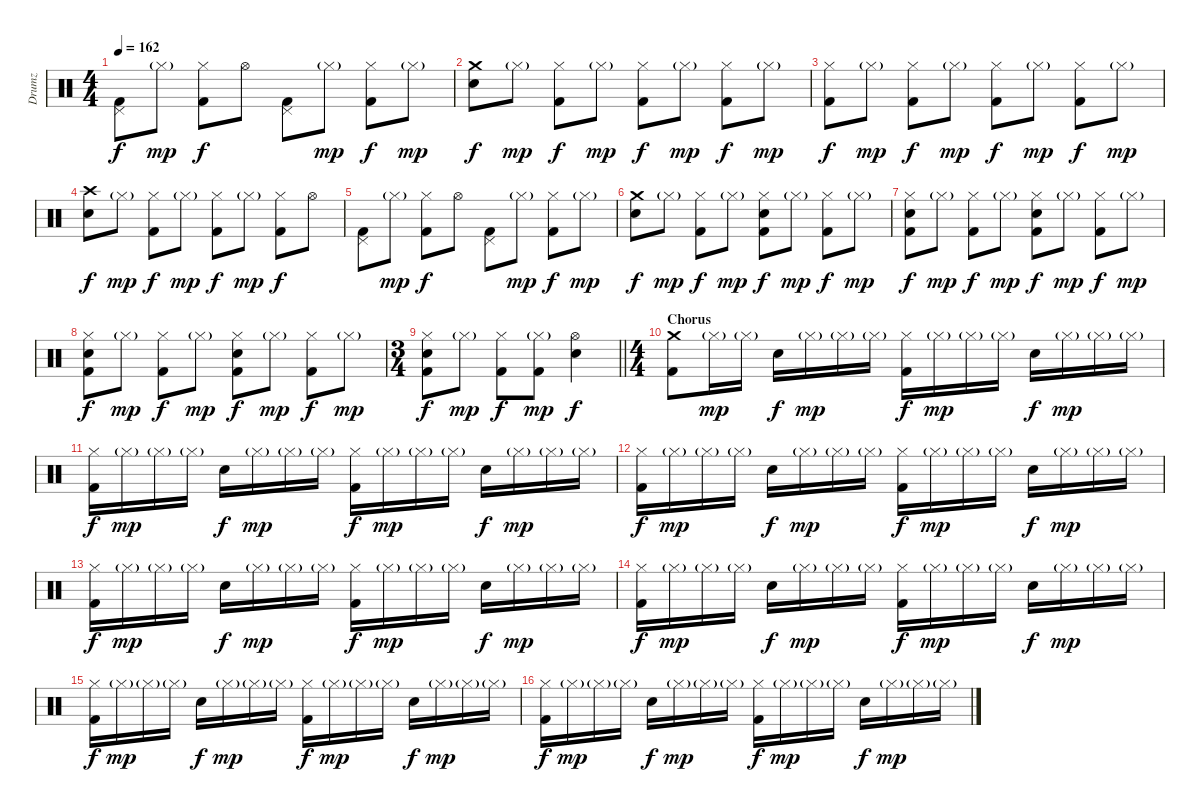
\track ("Drumz" "Drumz") {instrument percussion}
\staff {score}
\articulation defaults
\ts (4 4)
\tempo 162
\clef neutral
\ks c
("Pedal Hi-Hat (hit)" "Kick (hit) 2").8{dy f} "Hi-Hat (closed)"{g}.8{dy mp} ("Hi-Hat (closed)" "Kick (hit) 2").8{dy f} "Hi-Hat (open)".8 ("Pedal Hi-Hat (hit)" "Kick (hit) 2").8 "Hi-Hat (closed)"{g}.8{dy mp} ("Hi-Hat (closed)" "Kick (hit) 2").8{dy f} "Hi-Hat (closed)"{g}.8{dy mp} |
("Crash medium (hit)" "Electric Snare (hit)").8{dy f} "Hi-Hat (closed)"{g}.8{dy mp} ("Hi-Hat (closed)" "Kick (hit) 2").8{dy f} "Hi-Hat (closed)"{g}.8{dy mp} ("Hi-Hat (closed)" "Kick (hit) 2").8{dy f} "Hi-Hat (closed)"{g}.8{dy mp} ("Hi-Hat (closed)" "Kick (hit) 2").8{dy f} "Hi-Hat (closed)"{g}.8{dy mp} |
("Hi-Hat (closed)" "Kick (hit) 2").8{dy f} "Hi-Hat (closed)"{g}.8{dy mp} ("Hi-Hat (closed)" "Kick (hit) 2").8{dy f} "Hi-Hat (closed)"{g}.8{dy mp} ("Hi-Hat (closed)" "Kick (hit) 2").8{dy f} "Hi-Hat (closed)"{g}.8{dy mp} ("Hi-Hat (closed)" "Kick (hit) 2").8{dy f} "Hi-Hat (closed)"{g}.8{dy mp} |
("Crash high (hit)" "Electric Snare (hit)").8{dy f} "Hi-Hat (closed)"{g}.8{dy mp} ("Hi-Hat (closed)" "Kick (hit) 2").8{dy f} "Hi-Hat (closed)"{g}.8{dy mp} ("Hi-Hat (closed)" "Kick (hit) 2").8{dy f} "Hi-Hat (closed)"{g}.8{dy mp} ("Hi-Hat (closed)" "Kick (hit) 2").8{dy f} "Hi-Hat (open)".8 |
("Pedal Hi-Hat (hit)" "Kick (hit) 2").8 "Hi-Hat (closed)"{g}.8{dy mp} ("Hi-Hat (closed)" "Kick (hit) 2").8{dy f} "Hi-Hat (open)".8 ("Pedal Hi-Hat (hit)" "Kick (hit) 2").8 "Hi-Hat (closed)"{g}.8{dy mp} ("Hi-Hat (closed)" "Kick (hit) 2").8{dy f} "Hi-Hat (closed)"{g}.8{dy mp} |
("Crash medium (hit)" "Electric Snare (hit)").8{dy f} "Hi-Hat (closed)"{g}.8{dy mp} ("Hi-Hat (closed)" "Kick (hit) 2").8{dy f} "Hi-Hat (closed)"{g}.8{dy mp} ("Hi-Hat (closed)" "Electric Snare (hit)" "Kick (hit) 2").8{dy f} "Hi-Hat (closed)"{g}.8{dy mp} ("Hi-Hat (closed)" "Kick (hit) 2").8{dy f} "Hi-Hat (closed)"{g}.8{dy mp} |
("Hi-Hat (closed)" "Electric Snare (hit)" "Kick (hit) 2").8{dy f} "Hi-Hat (closed)"{g}.8{dy mp} ("Hi-Hat (closed)" "Kick (hit) 2").8{dy f} "Hi-Hat (closed)"{g}.8{dy mp} ("Hi-Hat (closed)" "Electric Snare (hit)" "Kick (hit) 2").8{dy f} "Hi-Hat (closed)"{g}.8{dy mp} ("Hi-Hat (closed)" "Kick (hit) 2").8{dy f} "Hi-Hat (closed)"{g}.8{dy mp} |
("Hi-Hat (closed)" "Electric Snare (hit)" "Kick (hit) 2").8{dy f} "Hi-Hat (closed)"{g}.8{dy mp} ("Hi-Hat (closed)" "Kick (hit) 2").8{dy f} "Hi-Hat (closed)"{g}.8{dy mp} ("Hi-Hat (closed)" "Electric Snare (hit)" "Kick (hit) 2").8{dy f} "Hi-Hat (closed)"{g}.8{dy mp} ("Hi-Hat (closed)" "Kick (hit) 2").8{dy f} "Hi-Hat (closed)"{g}.8{dy mp} |
\ts (3 4)
\barLineRight lightlight
("Hi-Hat (closed)" "Electric Snare (hit)" "Kick (hit) 2").8{dy f} "Hi-Hat (closed)"{g}.8{dy mp} ("Hi-Hat (closed)" "Kick (hit) 2").8{dy f} ("Hi-Hat (closed)"{g} "Kick (hit) 2").8{dy mp} ("Hi-Hat (open)" "Electric Snare (hit)").4{dy f} |
\ts (4 4)
\section ("" "Chorus")
("Crash medium (hit)" "Kick (hit) 2").8 "Hi-Hat (closed)"{g}.16{dy mp} "Hi-Hat (closed)"{g}.16 "Electric Snare (hit)".16{dy f} "Hi-Hat (closed)"{g}.16{dy mp} "Hi-Hat (closed)"{g}.16 "Hi-Hat (closed)"{g}.16 ("Hi-Hat (closed)" "Kick (hit) 2").16{dy f} "Hi-Hat (closed)"{g}.16{dy mp} "Hi-Hat (closed)"{g}.16 "Hi-Hat (closed)"{g}.16 "Electric Snare (hit)".16{dy f} "Hi-Hat (closed)"{g}.16{dy mp} "Hi-Hat (closed)"{g}.16 "Hi-Hat (closed)"{g}.16 |
("Hi-Hat (closed)" "Kick (hit) 2").16{dy f} "Hi-Hat (closed)"{g}.16{dy mp} "Hi-Hat (closed)"{g}.16 "Hi-Hat (closed)"{g}.16 "Electric Snare (hit)".16{dy f} "Hi-Hat (closed)"{g}.16{dy mp} "Hi-Hat (closed)"{g}.16 "Hi-Hat (closed)"{g}.16 ("Hi-Hat (closed)" "Kick (hit) 2").16{dy f} "Hi-Hat (closed)"{g}.16{dy mp} "Hi-Hat (closed)"{g}.16 "Hi-Hat (closed)"{g}.16 "Electric Snare (hit)".16{dy f} "Hi-Hat (closed)"{g}.16{dy mp} "Hi-Hat (closed)"{g}.16 "Hi-Hat (closed)"{g}.16 |
("Hi-Hat (closed)" "Kick (hit) 2").16{dy f} "Hi-Hat (closed)"{g}.16{dy mp} "Hi-Hat (closed)"{g}.16 "Hi-Hat (closed)"{g}.16 "Electric Snare (hit)".16{dy f} "Hi-Hat (closed)"{g}.16{dy mp} "Hi-Hat (closed)"{g}.16 "Hi-Hat (closed)"{g}.16 ("Hi-Hat (closed)" "Kick (hit) 2").16{dy f} "Hi-Hat (closed)"{g}.16{dy mp} "Hi-Hat (closed)"{g}.16 "Hi-Hat (closed)"{g}.16 "Electric Snare (hit)".16{dy f} "Hi-Hat (closed)"{g}.16{dy mp} "Hi-Hat (closed)"{g}.16 "Hi-Hat (closed)"{g}.16 |
("Hi-Hat (closed)" "Kick (hit) 2").16{dy f} "Hi-Hat (closed)"{g}.16{dy mp} "Hi-Hat (closed)"{g}.16 "Hi-Hat (closed)"{g}.16 "Electric Snare (hit)".16{dy f} "Hi-Hat (closed)"{g}.16{dy mp} "Hi-Hat (closed)"{g}.16 "Hi-Hat (closed)"{g}.16 ("Hi-Hat (closed)" "Kick (hit) 2").16{dy f} "Hi-Hat (closed)"{g}.16{dy mp} "Hi-Hat (closed)"{g}.16 "Hi-Hat (closed)"{g}.16 "Electric Snare (hit)".16{dy f} "Hi-Hat (closed)"{g}.16{dy mp} "Hi-Hat (closed)"{g}.16 "Hi-Hat (closed)"{g}.16 |
("Hi-Hat (closed)" "Kick (hit) 2").16{dy f} "Hi-Hat (closed)"{g}.16{dy mp} "Hi-Hat (closed)"{g}.16 "Hi-Hat (closed)"{g}.16 "Electric Snare (hit)".16{dy f} "Hi-Hat (closed)"{g}.16{dy mp} "Hi-Hat (closed)"{g}.16 "Hi-Hat (closed)"{g}.16 ("Hi-Hat (closed)" "Kick (hit) 2").16{dy f} "Hi-Hat (closed)"{g}.16{dy mp} "Hi-Hat (closed)"{g}.16 "Hi-Hat (closed)"{g}.16 "Electric Snare (hit)".16{dy f} "Hi-Hat (closed)"{g}.16{dy mp} "Hi-Hat (closed)"{g}.16 "Hi-Hat (closed)"{g}.16 |
("Hi-Hat (closed)" "Kick (hit) 2").16{dy f} "Hi-Hat (closed)"{g}.16{dy mp} "Hi-Hat (closed)"{g}.16 "Hi-Hat (closed)"{g}.16 "Electric Snare (hit)".16{dy f} "Hi-Hat (closed)"{g}.16{dy mp} "Hi-Hat (closed)"{g}.16 "Hi-Hat (closed)"{g}.16 ("Hi-Hat (closed)" "Kick (hit) 2").16{dy f} "Hi-Hat (closed)"{g}.16{dy mp} "Hi-Hat (closed)"{g}.16 "Hi-Hat (closed)"{g}.16 "Electric Snare (hit)".16{dy f} "Hi-Hat (closed)"{g}.16{dy mp} "Hi-Hat (closed)"{g}.16 "Hi-Hat (closed)"{g}.16 |
("Hi-Hat (closed)" "Kick (hit) 2").16{dy f} "Hi-Hat (closed)"{g}.16{dy mp} "Hi-Hat (closed)"{g}.16 "Hi-Hat (closed)"{g}.16 "Electric Snare (hit)".16{dy f} "Hi-Hat (closed)"{g}.16{dy mp} "Hi-Hat (closed)"{g}.16 "Hi-Hat (closed)"{g}.16 ("Hi-Hat (closed)" "Kick (hit) 2").16{dy f} "Hi-Hat (closed)"{g}.16{dy mp} "Hi-Hat (closed)"{g}.16 "Hi-Hat (closed)"{g}.16 "Electric Snare (hit)".16{dy f} "Hi-Hat (closed)"{g}.16{dy mp} "Hi-Hat (closed)"{g}.16 "Hi-Hat (closed)"{g}.16
